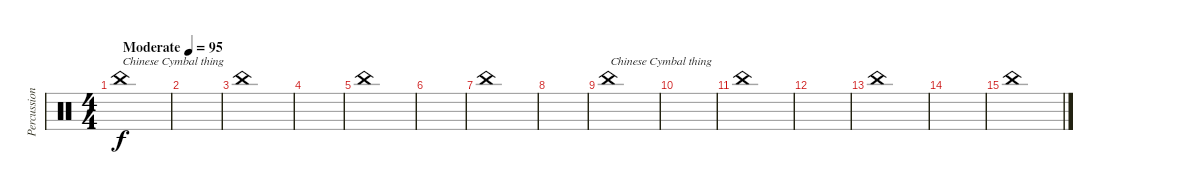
\track ("Percussion" "Percussion") {instrument percussion}
\staff {score}
\articulation defaults
\ts (4 4)
\tempo (95 "Moderate")
\clef neutral
\ks c "China (hit)".1{txt "Chinese Cymbal thing" dy f}
|
|
"China (hit)".1 |
|
"China (hit)".1 |
|
"China (hit)".1 |
|
"China (hit)".1{txt "Chinese Cymbal thing"} |
|
"China (hit)".1 |
|
"China (hit)".1 |
|
"China (hit)".1
